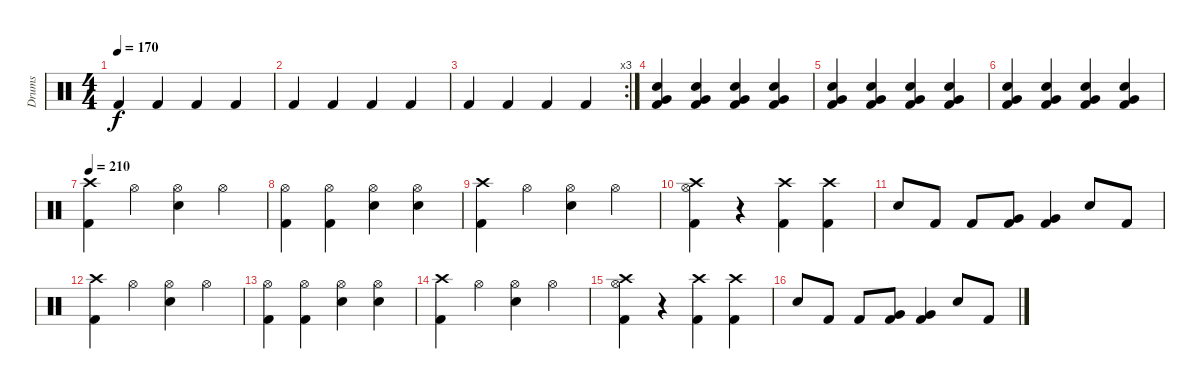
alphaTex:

\track ("Drums" "Drums") {instrument percussion}
\staff {score}
\articulation defaults
\ts (4 4)
\tempo 170
\clef neutral
\ks c "Kick (hit) 2".4{dy f} "Kick (hit) 2".4 "Kick (hit) 2".4 "Kick (hit) 2".4
|
"Kick (hit) 2".4 "Kick (hit) 2".4 "Kick (hit) 2".4 "Kick (hit) 2".4 |
\rc 3 "Kick (hit) 2".4 "Kick (hit) 2".4 "Kick (hit) 2".4 "Kick (hit) 2".4
|
("Snare (hit) 2" "Very Low Tom (hit)" "Kick (hit) 2").4 ("Snare (hit) 2" "Very Low Tom (hit)" "Kick (hit) 2").4 ("Snare (hit) 2" "Very Low Tom (hit)" "Kick (hit) 2").4 ("Snare (hit) 2" "Very Low Tom (hit)" "Kick (hit) 2").4 |
("Snare (hit) 2" "Very Low Tom (hit)" "Kick (hit) 2").4 ("Snare (hit) 2" "Very Low Tom (hit)" "Kick (hit) 2").4 ("Snare (hit) 2" "Very Low Tom (hit)" "Kick (hit) 2").4 ("Snare (hit) 2" "Very Low Tom (hit)" "Kick (hit) 2").4 |
("Snare (hit) 2" "Very Low Tom (hit)" "Kick (hit) 2").4 ("Snare (hit) 2" "Very Low Tom (hit)" "Kick (hit) 2").4 ("Snare (hit) 2" "Very Low Tom (hit)" "Kick (hit) 2").4 ("Snare (hit) 2" "Very Low Tom (hit)" "Kick (hit) 2").4 |
\tempo 210
("Crash high (hit)" "Kick (hit) 2").4 "Hi-Hat (open)".4 ("Hi-Hat (open)" "Snare (hit) 2").4 "Hi-Hat (open)".4 |
("Hi-Hat (open)" "Kick (hit) 2").4 ("Hi-Hat (open)" "Kick (hit) 2").4 ("Hi-Hat (open)" "Snare (hit) 2").4 ("Hi-Hat (open)" "Snare (hit) 2").4 |
("Crash high (hit)" "Kick (hit) 2").4 "Hi-Hat (open)".4 ("Snare (hit) 2" "Hi-Hat (open)").4 "Hi-Hat (open)".4 |
("Hi-Hat (open)" "Kick (hit) 2" "Crash high (hit)").4 r.4 ("Crash high (hit)" "Kick (hit) 2").4 ("Crash high (hit)" "Kick (hit) 2").4 |
"Snare (hit) 2".8 "Kick (hit) 2".8 "Kick (hit) 2".8 ("Kick (hit) 2" "Very Low Tom (hit)").8 ("Very Low Tom (hit)" "Kick (hit) 2").4 "Snare (hit) 2".8 "Kick (hit) 2".8 |
("Crash high (hit)" "Kick (hit) 2").4 "Hi-Hat (open)".4 ("Hi-Hat (open)" "Snare (hit) 2").4 "Hi-Hat (open)".4 |
("Hi-Hat (open)" "Kick (hit) 2").4 ("Hi-Hat (open)" "Kick (hit) 2").4 ("Hi-Hat (open)" "Snare (hit) 2").4 ("Hi-Hat (open)" "Snare (hit) 2").4 |
("Crash high (hit)" "Kick (hit) 2").4 "Hi-Hat (open)".4 ("Snare (hit) 2" "Hi-Hat (open)").4 "Hi-Hat (open)".4 |
("Hi-Hat (open)" "Kick (hit) 2" "Crash high (hit)").4 r.4 ("Crash high (hit)" "Kick (hit) 2").4 ("Crash high (hit)" "Kick (hit) 2").4 |
"Snare (hit) 2".8 "Kick (hit) 2".8 "Kick (hit) 2".8 ("Kick (hit) 2" "Very Low Tom (hit)").8 ("Very Low Tom (hit)" "Kick (hit) 2").4 "Snare (hit) 2".8 "Kick (hit) 2".8
